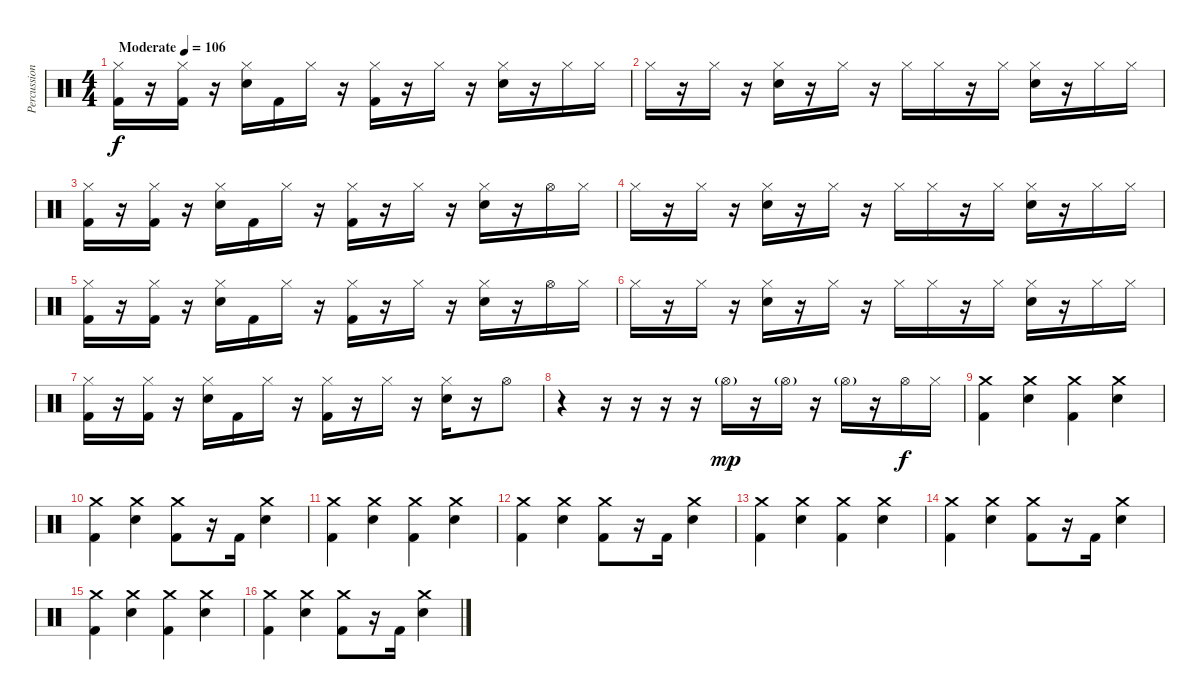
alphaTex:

\track ("Percussion" "Percussion") {instrument percussion}
\staff {score}
\articulation defaults
\ts (4 4)
\tempo (106 "Moderate")
\clef neutral
\ks c
("Hi-Hat (closed)" "Kick (hit) 2").16{dy f} r.16 ("Hi-Hat (closed)" "Kick (hit) 2").16 r.16 ("Hi-Hat (closed)" "Electric Snare (hit)").16 "Kick (hit) 2".16 "Hi-Hat (closed)".16 r.16 ("Hi-Hat (closed)" "Kick (hit) 2").16 r.16 "Hi-Hat (closed)".16 r.16 ("Hi-Hat (closed)" "Electric Snare (hit)").16 r.16 "Hi-Hat (closed)".16 "Hi-Hat (closed)".16 |
"Hi-Hat (closed)".16 r.16 "Hi-Hat (closed)".16 r.16 ("Hi-Hat (closed)" "Electric Snare (hit)").16 r.16 "Hi-Hat (closed)".16 r.16 "Hi-Hat (closed)".16 "Hi-Hat (closed)".16 r.16 "Hi-Hat (closed)".16 ("Hi-Hat (closed)" "Electric Snare (hit)").16 r.16 "Hi-Hat (closed)".16 "Hi-Hat (closed)".16 |
("Hi-Hat (closed)" "Kick (hit) 2").16 r.16 ("Hi-Hat (closed)" "Kick (hit) 2").16 r.16 ("Hi-Hat (closed)" "Electric Snare (hit)").16 "Kick (hit) 2".16 "Hi-Hat (closed)".16 r.16 ("Hi-Hat (closed)" "Kick (hit) 2").16 r.16 "Hi-Hat (closed)".16 r.16 ("Hi-Hat (closed)" "Electric Snare (hit)").16 r.16 "Hi-Hat (open)".16 "Hi-Hat (closed)".16 |
"Hi-Hat (closed)".16 r.16 "Hi-Hat (closed)".16 r.16 ("Hi-Hat (closed)" "Electric Snare (hit)").16 r.16 "Hi-Hat (closed)".16 r.16 "Hi-Hat (closed)".16 "Hi-Hat (closed)".16 r.16 "Hi-Hat (closed)".16 ("Hi-Hat (closed)" "Electric Snare (hit)").16 r.16 "Hi-Hat (closed)".16 "Hi-Hat (closed)".16 |
("Hi-Hat (closed)" "Kick (hit) 2").16 r.16 ("Hi-Hat (closed)" "Kick (hit) 2").16 r.16 ("Hi-Hat (closed)" "Electric Snare (hit)").16 "Kick (hit) 2".16 "Hi-Hat (closed)".16 r.16 ("Hi-Hat (closed)" "Kick (hit) 2").16 r.16 "Hi-Hat (closed)".16 r.16 ("Hi-Hat (closed)" "Electric Snare (hit)").16 r.16 "Hi-Hat (open)".16 "Hi-Hat (closed)".16 |
"Hi-Hat (closed)".16 r.16 "Hi-Hat (closed)".16 r.16 ("Hi-Hat (closed)" "Electric Snare (hit)").16 r.16 "Hi-Hat (closed)".16 r.16 "Hi-Hat (closed)".16 "Hi-Hat (closed)".16 r.16 "Hi-Hat (closed)".16 ("Hi-Hat (closed)" "Electric Snare (hit)").16 r.16 "Hi-Hat (closed)".16 "Hi-Hat (closed)".16 |
("Hi-Hat (closed)" "Kick (hit) 2").16 r.16 ("Hi-Hat (closed)" "Kick (hit) 2").16 r.16 ("Hi-Hat (closed)" "Electric Snare (hit)").16 "Kick (hit) 2".16 "Hi-Hat (closed)".16 r.16 ("Hi-Hat (closed)" "Kick (hit) 2").16 r.16 "Hi-Hat (closed)".16 r.16 ("Hi-Hat (closed)" "Electric Snare (hit)").16 r.16 "Hi-Hat (open)".8 |
r.4 r.16 r.16 r.16 r.16 "Hi-Hat (open)"{g}.16{dy mp} r.16 "Hi-Hat (open)"{g}.16 r.16 "Hi-Hat (open)"{g}.16 r.16 "Hi-Hat (open)".16{dy f} "Hi-Hat (closed)".16 |
("Crash medium (hit)" "Kick (hit) 2").4 ("Crash medium (hit)" "Electric Snare (hit)").4 ("Crash medium (hit)" "Kick (hit) 2").4 ("Crash medium (hit)" "Electric Snare (hit)").4 |
("Crash medium (hit)" "Kick (hit) 2").4 ("Crash medium (hit)" "Electric Snare (hit)").4 ("Crash medium (hit)" "Kick (hit) 2").8 r.16 "Kick (hit) 2".16 ("Crash medium (hit)" "Electric Snare (hit)").4 |
("Crash medium (hit)" "Kick (hit) 2").4 ("Crash medium (hit)" "Electric Snare (hit)").4 ("Crash medium (hit)" "Kick (hit) 2").4 ("Crash medium (hit)" "Electric Snare (hit)").4 |
("Crash medium (hit)" "Kick (hit) 2").4 ("Crash medium (hit)" "Electric Snare (hit)").4 ("Crash medium (hit)" "Kick (hit) 2").8 r.16 "Kick (hit) 2".16 ("Crash medium (hit)" "Electric Snare (hit)").4 |
("Crash medium (hit)" "Kick (hit) 2").4 ("Crash medium (hit)" "Electric Snare (hit)").4 ("Crash medium (hit)" "Kick (hit) 2").4 ("Crash medium (hit)" "Electric Snare (hit)").4 |
("Crash medium (hit)" "Kick (hit) 2").4 ("Crash medium (hit)" "Electric Snare (hit)").4 ("Crash medium (hit)" "Kick (hit) 2").8 r.16 "Kick (hit) 2".16 ("Crash medium (hit)" "Electric Snare (hit)").4 |
("Crash medium (hit)" "Kick (hit) 2").4 ("Crash medium (hit)" "Electric Snare (hit)").4 ("Crash medium (hit)" "Kick (hit) 2").4 ("Crash medium (hit)" "Electric Snare (hit)").4 |
("Crash medium (hit)" "Kick (hit) 2").4 ("Crash medium (hit)" "Electric Snare (hit)").4 ("Crash medium (hit)" "Kick (hit) 2").8 r.16 "Kick (hit) 2".16 ("Crash medium (hit)" "Electric Snare (hit)").4
